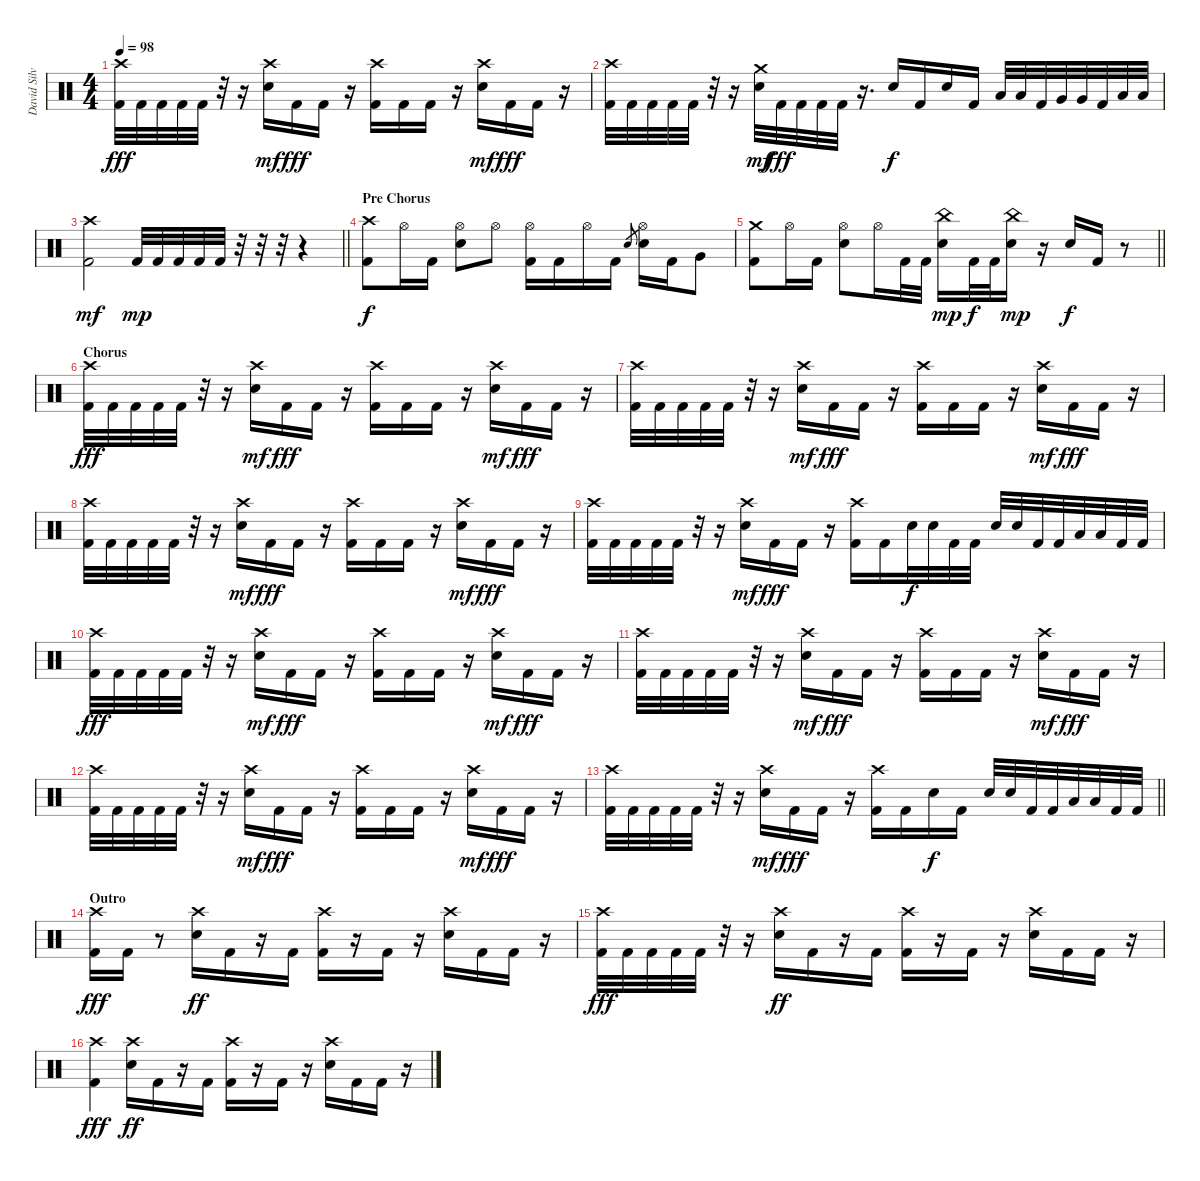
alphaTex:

\track ("David Silveria" "David Silv") {instrument percussion}
\staff {score}
\articulation defaults
\ts (4 4)
\tempo 98
\clef neutral
\ks c
("Crash high (hit)" "Kick (hit) 2").32{dy fff} "Kick (hit) 2".32 "Kick (hit) 2".32 "Kick (hit) 2".32 "Kick (hit) 2".32 r.32 r.16 ("Crash high (hit)" "Snare (hit) 2").16{dy mf} "Kick (hit) 2".16{dy fff} "Kick (hit) 2".16 r.16 ("Crash high (hit)" "Kick (hit) 2").16 "Kick (hit) 2".16 "Kick (hit) 2".16 r.16 ("Crash high (hit)" "Snare (hit) 2").16{dy mf} "Kick (hit) 2".16{dy fff} "Kick (hit) 2".16 r.16 |
("Crash high (hit)" "Kick (hit) 2").32 "Kick (hit) 2".32 "Kick (hit) 2".32 "Kick (hit) 2".32 "Kick (hit) 2".32 r.32 r.16 ("Crash medium (hit)" "Snare (hit) 2").32{dy mf} "Kick (hit) 2".32{dy fff} "Kick (hit) 2".32 "Kick (hit) 2".32 "Kick (hit) 2".32 r.16{d} "Snare (hit) 2".16{dy f} "Kick (hit) 2".16 "Snare (hit) 2".16 "Kick (hit) 2".16 "Low Tom (hit)".32 "Low Tom (hit)".32 "Kick (hit) 2".32 "Very Low Tom (hit)".32 "Very Low Tom (hit)".32 "Kick (hit) 2".32 "Low Floor Tom (hit)".32 "Low Floor Tom (hit)".32 |
\barLineRight lightlight
("Crash high (hit)" "Kick (hit) 2").2{dy mf} "Kick (hit) 2".32{dy mp} "Kick (hit) 2".32 "Kick (hit) 2".32 "Kick (hit) 2".32 "Kick (hit) 2".32 r.32 r.32 r.32 r.4 |
\section ("" "Pre Chorus")
("Crash high (hit)" "Kick (hit) 2").8{dy f} "Hi-Hat (open)".16 "Kick (hit) 2".16 ("Hi-Hat (open)" "Snare (hit) 2").8 "Hi-Hat (open)".8 ("Hi-Hat (open)" "Kick (hit) 2").16 "Kick (hit) 2".16 "Hi-Hat (open)".16 "Kick (hit) 2".16 "Snare (hit) 2".8{gr} ("Hi-Hat (open)" "Snare (hit) 2").16 "Kick (hit) 2".16 "Very Low Tom (hit)".8 |
\barLineRight lightlight
("Crash medium (hit)" "Kick (hit) 2").8 "Hi-Hat (open)".16 "Kick (hit) 2".16 ("Hi-Hat (open)" "Snare (hit) 2").8 "Hi-Hat (open)".16 "Kick (hit) 2".32 "Kick (hit) 2".32 ("China (hit)" "Snare (hit) 2").16{dy mp} "Kick (hit) 2".32{dy f} "Kick (hit) 2".32 ("China (hit)" "Snare (hit) 2").16{dy mp} r.16 "Snare (hit) 2".16{dy f} "Kick (hit) 2".16 r.8 |
\section ("" "Chorus")
("Crash high (hit)" "Kick (hit) 2").32{dy fff} "Kick (hit) 2".32 "Kick (hit) 2".32 "Kick (hit) 2".32 "Kick (hit) 2".32 r.32 r.16 ("Crash high (hit)" "Snare (hit) 2").16{dy mf} "Kick (hit) 2".16{dy fff} "Kick (hit) 2".16 r.16 ("Crash high (hit)" "Kick (hit) 2").16 "Kick (hit) 2".16 "Kick (hit) 2".16 r.16 ("Crash high (hit)" "Snare (hit) 2").16{dy mf} "Kick (hit) 2".16{dy fff} "Kick (hit) 2".16 r.16 |
("Crash high (hit)" "Kick (hit) 2").32 "Kick (hit) 2".32 "Kick (hit) 2".32 "Kick (hit) 2".32 "Kick (hit) 2".32 r.32 r.16 ("Crash high (hit)" "Snare (hit) 2").16{dy mf} "Kick (hit) 2".16{dy fff} "Kick (hit) 2".16 r.16 ("Crash high (hit)" "Kick (hit) 2").16 "Kick (hit) 2".16 "Kick (hit) 2".16 r.16 ("Crash high (hit)" "Snare (hit) 2").16{dy mf} "Kick (hit) 2".16{dy fff} "Kick (hit) 2".16 r.16 |
("Crash high (hit)" "Kick (hit) 2").32 "Kick (hit) 2".32 "Kick (hit) 2".32 "Kick (hit) 2".32 "Kick (hit) 2".32 r.32 r.16 ("Crash high (hit)" "Snare (hit) 2").16{dy mf} "Kick (hit) 2".16{dy fff} "Kick (hit) 2".16 r.16 ("Crash high (hit)" "Kick (hit) 2").16 "Kick (hit) 2".16 "Kick (hit) 2".16 r.16 ("Crash high (hit)" "Snare (hit) 2").16{dy mf} "Kick (hit) 2".16{dy fff} "Kick (hit) 2".16 r.16 |
("Crash high (hit)" "Kick (hit) 2").32 "Kick (hit) 2".32 "Kick (hit) 2".32 "Kick (hit) 2".32 "Kick (hit) 2".32 r.32 r.16 ("Crash high (hit)" "Snare (hit) 2").16{dy mf} "Kick (hit) 2".16{dy fff} "Kick (hit) 2".16 r.16 ("Crash high (hit)" "Kick (hit) 2").16 "Kick (hit) 2".16 "Snare (hit) 2".32{dy f} "Snare (hit) 2".32 "Kick (hit) 2".32 "Kick (hit) 2".32 "Snare (hit) 2".32 "Snare (hit) 2".32 "Kick (hit) 2".32 "Kick (hit) 2".32 "Low Floor Tom (hit)".32 "Low Floor Tom (hit)".32 "Kick (hit) 2".32 "Kick (hit) 2".32 |
("Crash high (hit)" "Kick (hit) 2").32{dy fff} "Kick (hit) 2".32 "Kick (hit) 2".32 "Kick (hit) 2".32 "Kick (hit) 2".32 r.32 r.16 ("Crash high (hit)" "Snare (hit) 2").16{dy mf} "Kick (hit) 2".16{dy fff} "Kick (hit) 2".16 r.16 ("Crash high (hit)" "Kick (hit) 2").16 "Kick (hit) 2".16 "Kick (hit) 2".16 r.16 ("Crash high (hit)" "Snare (hit) 2").16{dy mf} "Kick (hit) 2".16{dy fff} "Kick (hit) 2".16 r.16 |
("Crash high (hit)" "Kick (hit) 2").32 "Kick (hit) 2".32 "Kick (hit) 2".32 "Kick (hit) 2".32 "Kick (hit) 2".32 r.32 r.16 ("Crash high (hit)" "Snare (hit) 2").16{dy mf} "Kick (hit) 2".16{dy fff} "Kick (hit) 2".16 r.16 ("Crash high (hit)" "Kick (hit) 2").16 "Kick (hit) 2".16 "Kick (hit) 2".16 r.16 ("Crash high (hit)" "Snare (hit) 2").16{dy mf} "Kick (hit) 2".16{dy fff} "Kick (hit) 2".16 r.16 |
("Crash high (hit)" "Kick (hit) 2").32 "Kick (hit) 2".32 "Kick (hit) 2".32 "Kick (hit) 2".32 "Kick (hit) 2".32 r.32 r.16 ("Crash high (hit)" "Snare (hit) 2").16{dy mf} "Kick (hit) 2".16{dy fff} "Kick (hit) 2".16 r.16 ("Crash high (hit)" "Kick (hit) 2").16 "Kick (hit) 2".16 "Kick (hit) 2".16 r.16 ("Crash high (hit)" "Snare (hit) 2").16{dy mf} "Kick (hit) 2".16{dy fff} "Kick (hit) 2".16 r.16 |
\barLineRight lightlight
("Crash high (hit)" "Kick (hit) 2").32 "Kick (hit) 2".32 "Kick (hit) 2".32 "Kick (hit) 2".32 "Kick (hit) 2".32 r.32 r.16 ("Crash high (hit)" "Snare (hit) 2").16{dy mf} "Kick (hit) 2".16{dy fff} "Kick (hit) 2".16 r.16 ("Crash high (hit)" "Kick (hit) 2").16 "Kick (hit) 2".16 "Snare (hit) 2".16{dy f} "Kick (hit) 2".16 "Snare (hit) 2".32 "Snare (hit) 2".32 "Kick (hit) 2".32 "Kick (hit) 2".32 "Low Floor Tom (hit)".32 "Low Floor Tom (hit)".32 "Kick (hit) 2".32 "Kick (hit) 2".32 |
\section ("" "Outro")
("Crash high (hit)" "Kick (hit) 2").16{dy fff} "Kick (hit) 2".16 r.8 ("Crash high (hit)" "Snare (hit) 2").16{dy ff} "Kick (hit) 2".16 r.16 "Kick (hit) 2".16 ("Crash high (hit)" "Kick (hit) 2").16 r.16 "Kick (hit) 2".16 r.16 ("Crash high (hit)" "Snare (hit) 2").16 "Kick (hit) 2".16 "Kick (hit) 2".16 r.16 |
("Crash high (hit)" "Kick (hit) 2").32{dy fff} "Kick (hit) 2".32 "Kick (hit) 2".32 "Kick (hit) 2".32 "Kick (hit) 2".32 r.32 r.16 ("Crash high (hit)" "Snare (hit) 2").16{dy ff} "Kick (hit) 2".16 r.16 "Kick (hit) 2".16 ("Crash high (hit)" "Kick (hit) 2").16 r.16 "Kick (hit) 2".16 r.16 ("Crash high (hit)" "Snare (hit) 2").16 "Kick (hit) 2".16 "Kick (hit) 2".16 r.16 |
("Crash high (hit)" "Kick (hit) 2").4{dy fff} ("Crash high (hit)" "Snare (hit) 2").16{dy ff} "Kick (hit) 2".16 r.16 "Kick (hit) 2".16 ("Crash high (hit)" "Kick (hit) 2").16 r.16 "Kick (hit) 2".16 r.16 ("Crash high (hit)" "Snare (hit) 2").16 "Kick (hit) 2".16 "Kick (hit) 2".16 r.16
